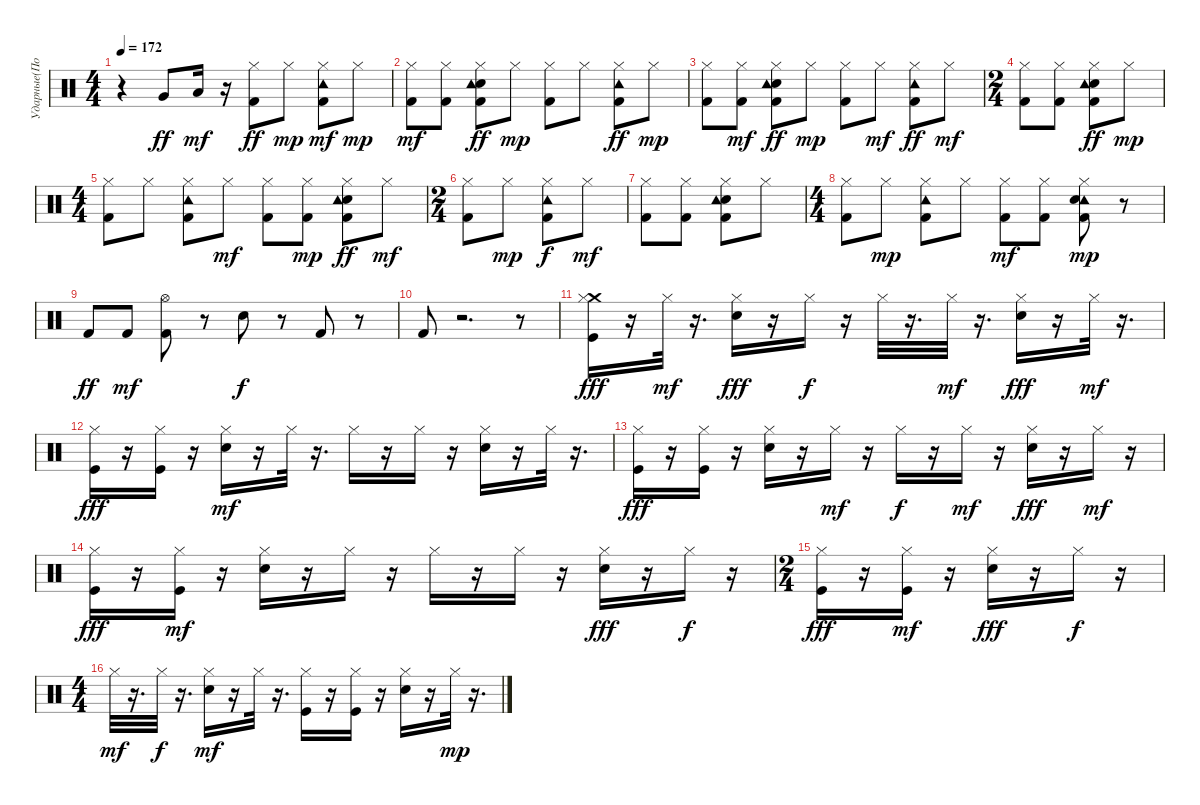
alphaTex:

\track ("Ударные(Потапкин)" "Ударные(По") {instrument percussion}
\staff {score}
\articulation defaults
\ts (4 4)
\tempo 172
\clef neutral
\ks c
r.4{dy fff} "Very Low Tom (hit)".8{dy ff} "Low Floor Tom (hit)".16{dy mf} r.16 ("Hi-Hat (closed)" "Kick (hit) 2").8{dy ff} "Hi-Hat (closed)".8{dy mp} ("Hi-Hat (closed)" "Kick (hit) 2" "Tambourine (hit)").8{dy mf} "Hi-Hat (closed)".8{dy mp} |
("Hi-Hat (closed)" "Kick (hit) 2").8{dy mf} ("Hi-Hat (closed)" "Kick (hit) 2").8 ("Snare (hit) 2" "Hi-Hat (closed)" "Kick (hit) 2" "Tambourine (hit)").8{dy ff} "Hi-Hat (closed)".8{dy mp} ("Hi-Hat (closed)" "Kick (hit) 2").8 "Hi-Hat (closed)".8 ("Hi-Hat (closed)" "Tambourine (hit)" "Kick (hit) 2").8{dy ff} "Hi-Hat (closed)".8{dy mp} |
("Hi-Hat (closed)" "Kick (hit) 2").8 ("Hi-Hat (closed)" "Kick (hit) 2").8{dy mf} ("Snare (hit) 2" "Hi-Hat (closed)" "Kick (hit) 2" "Tambourine (hit)").8{dy ff} "Hi-Hat (closed)".8{dy mp} ("Hi-Hat (closed)" "Kick (hit) 2").8 "Hi-Hat (closed)".8{dy mf} ("Hi-Hat (closed)" "Tambourine (hit)" "Kick (hit) 2").8{dy ff} "Hi-Hat (closed)".8{dy mf} |
\ts (2 4)
("Hi-Hat (closed)" "Kick (hit) 2").8 ("Hi-Hat (closed)" "Kick (hit) 2").8 ("Snare (hit) 2" "Hi-Hat (closed)" "Tambourine (hit)" "Kick (hit) 2").8{dy ff} "Hi-Hat (closed)".8{dy mp} |
\ts (4 4)
("Hi-Hat (closed)" "Kick (hit) 2").8 "Hi-Hat (closed)".8 ("Tambourine (hit)" "Kick (hit) 2" "Hi-Hat (closed)").8 "Hi-Hat (closed)".8{dy mf} ("Kick (hit) 2" "Hi-Hat (closed)").8 ("Kick (hit) 2" "Hi-Hat (closed)").8{dy mp} ("Snare (hit) 2" "Hi-Hat (closed)" "Tambourine (hit)" "Kick (hit) 2").8{dy ff} "Hi-Hat (closed)".8{dy mf} |
\ts (2 4)
("Kick (hit) 2" "Hi-Hat (closed)").8 "Hi-Hat (closed)".8{dy mp} ("Tambourine (hit)" "Kick (hit) 2" "Hi-Hat (closed)").8{dy f} "Hi-Hat (closed)".8{dy mf} |
("Kick (hit) 2" "Hi-Hat (closed)").8 ("Kick (hit) 2" "Hi-Hat (closed)").8 ("Snare (hit) 2" "Kick (hit) 2" "Tambourine (hit)" "Hi-Hat (closed)").8 "Hi-Hat (closed)".8 |
\ts (4 4)
("Kick (hit) 2" "Hi-Hat (closed)").8 "Hi-Hat (closed)".8{dy mp} ("Tambourine (hit)" "Kick (hit) 2" "Hi-Hat (closed)").8 "Hi-Hat (closed)".8 ("Kick (hit) 2" "Hi-Hat (closed)").8{dy mf} ("Kick (hit) 2" "Hi-Hat (closed)").8 ("Tambourine (hit)" "Kick (hit) 2" "Hi-Hat (closed)" "Snare (hit) 2").8{dy mp} r.8 |
"Kick (hit) 2".8{dy ff} "Kick (hit) 2".8{dy mf} ("Kick (hit) 2" "Hi-Hat (open)").8 r.8 "Snare (hit) 2".8{dy f} r.8 "Kick (hit) 2".8 r.8 |
"Kick (hit) 2".8 r.2{d} r.8 |
("Crash medium (hit)" "Kick (hit)" "Hi-Hat (closed)").16{dy fff} r.16 "Hi-Hat (closed)".32{dy mf} r.16{d} ("Snare (hit) 2" "Hi-Hat (closed)").16{dy fff} r.16 "Hi-Hat (closed)".16{dy f} r.16 "Hi-Hat (closed)".32 r.16{d} "Hi-Hat (closed)".32{dy mf} r.16{d} ("Hi-Hat (closed)" "Snare (hit) 2").16{dy fff} r.16 "Hi-Hat (closed)".32{dy mf} r.16{d} |
("Hi-Hat (closed)" "Kick (hit)").16{dy fff} r.16 ("Hi-Hat (closed)" "Kick (hit)").16 r.16 ("Snare (hit) 2" "Hi-Hat (closed)").16{dy mf} r.16 "Hi-Hat (closed)".32 r.16{d} "Hi-Hat (closed)".16 r.16 "Hi-Hat (closed)".16 r.16 ("Snare (hit) 2" "Hi-Hat (closed)").16 r.16 "Hi-Hat (closed)".32 r.16{d} |
("Kick (hit)" "Hi-Hat (closed)").16{dy fff} r.16 ("Hi-Hat (closed)" "Kick (hit)").16 r.16 ("Hi-Hat (closed)" "Snare (hit) 2").16 r.16 "Hi-Hat (closed)".16{dy mf} r.16 "Hi-Hat (closed)".16{dy f} r.16 "Hi-Hat (closed)".16{dy mf} r.16 ("Hi-Hat (closed)" "Snare (hit) 2").16{dy fff} r.16 "Hi-Hat (closed)".16{dy mf} r.16 |
("Hi-Hat (closed)" "Kick (hit)").16{dy fff} r.16 ("Hi-Hat (closed)" "Kick (hit)").16{dy mf} r.16 ("Snare (hit) 2" "Hi-Hat (closed)").16 r.16 "Hi-Hat (closed)".16 r.16 "Hi-Hat (closed)".16 r.16 "Hi-Hat (closed)".16 r.16 ("Snare (hit) 2" "Hi-Hat (closed)").16{dy fff} r.16 "Hi-Hat (closed)".16{dy f} r.16 |
\ts (2 4)
("Kick (hit)" "Hi-Hat (closed)").16{dy fff} r.16 ("Kick (hit)" "Hi-Hat (closed)").16{dy mf} r.16 ("Hi-Hat (closed)" "Snare (hit) 2").16{dy fff} r.16 "Hi-Hat (closed)".16{dy f} r.16 |
\ts (4 4)
"Hi-Hat (closed)".32{dy mf} r.16{d} "Hi-Hat (closed)".32{dy f} r.16{d} ("Snare (hit) 2" "Hi-Hat (closed)").16{dy mf} r.16 "Hi-Hat (closed)".32 r.16{d} ("Kick (hit)" "Hi-Hat (closed)").16 r.16 ("Kick (hit)" "Hi-Hat (closed)").16 r.16 ("Snare (hit) 2" "Hi-Hat (closed)").16 r.16 "Hi-Hat (closed)".32{dy mp} r.16{d}
